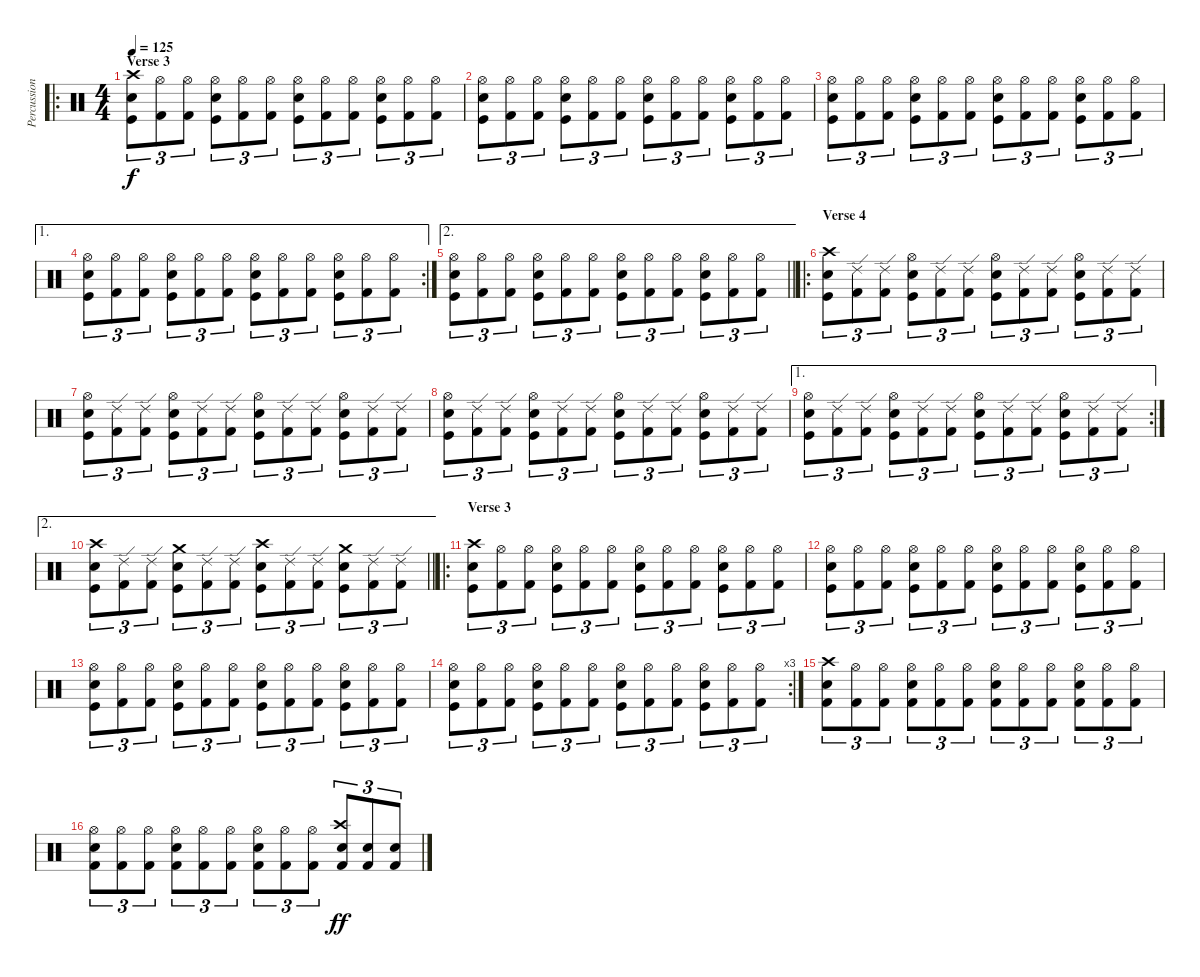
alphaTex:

\track ("Percussion" "Percussion") {instrument percussion}
\staff {score}
\articulation defaults
\ro
\ts (4 4)
\section ("" "Verse 3")
\tempo 125
\clef neutral
\ks c
("Snare (hit) 2" "Kick (hit)" "Crash high (hit)").8{tu (3 2) dy f} ("Kick (hit) 2" "Hi-Hat (open)").8{tu (3 2)} ("Kick (hit) 2" "Hi-Hat (open)").8{tu (3 2)} ("Snare (hit) 2" "Kick (hit)" "Hi-Hat (open)").8{tu (3 2)} ("Kick (hit) 2" "Hi-Hat (open)").8{tu (3 2)} ("Kick (hit) 2" "Hi-Hat (open)").8{tu (3 2)} ("Snare (hit) 2" "Kick (hit)" "Hi-Hat (open)").8{tu (3 2)} ("Kick (hit) 2" "Hi-Hat (open)").8{tu (3 2)} ("Kick (hit) 2" "Hi-Hat (open)").8{tu (3 2)} ("Snare (hit) 2" "Kick (hit)" "Hi-Hat (open)").8{tu (3 2)} ("Kick (hit) 2" "Hi-Hat (open)").8{tu (3 2)} ("Kick (hit) 2" "Hi-Hat (open)").8{tu (3 2)} |
("Snare (hit) 2" "Kick (hit)" "Hi-Hat (open)").8{tu (3 2)} ("Kick (hit) 2" "Hi-Hat (open)").8{tu (3 2)} ("Kick (hit) 2" "Hi-Hat (open)").8{tu (3 2)} ("Snare (hit) 2" "Kick (hit)" "Hi-Hat (open)").8{tu (3 2)} ("Kick (hit) 2" "Hi-Hat (open)").8{tu (3 2)} ("Kick (hit) 2" "Hi-Hat (open)").8{tu (3 2)} ("Snare (hit) 2" "Kick (hit)" "Hi-Hat (open)").8{tu (3 2)} ("Kick (hit) 2" "Hi-Hat (open)").8{tu (3 2)} ("Kick (hit) 2" "Hi-Hat (open)").8{tu (3 2)} ("Snare (hit) 2" "Kick (hit)" "Hi-Hat (open)").8{tu (3 2)} ("Kick (hit) 2" "Hi-Hat (open)").8{tu (3 2)} ("Kick (hit) 2" "Hi-Hat (open)").8{tu (3 2)} |
("Snare (hit) 2" "Kick (hit)" "Hi-Hat (open)").8{tu (3 2)} ("Kick (hit) 2" "Hi-Hat (open)").8{tu (3 2)} ("Kick (hit) 2" "Hi-Hat (open)").8{tu (3 2)} ("Snare (hit) 2" "Kick (hit)" "Hi-Hat (open)").8{tu (3 2)} ("Kick (hit) 2" "Hi-Hat (open)").8{tu (3 2)} ("Kick (hit) 2" "Hi-Hat (open)").8{tu (3 2)} ("Snare (hit) 2" "Kick (hit)" "Hi-Hat (open)").8{tu (3 2)} ("Kick (hit) 2" "Hi-Hat (open)").8{tu (3 2)} ("Kick (hit) 2" "Hi-Hat (open)").8{tu (3 2)} ("Snare (hit) 2" "Kick (hit)" "Hi-Hat (open)").8{tu (3 2)} ("Kick (hit) 2" "Hi-Hat (open)").8{tu (3 2)} ("Kick (hit) 2" "Hi-Hat (open)").8{tu (3 2)} |
\ae 1
\rc 2
("Snare (hit) 2" "Kick (hit)" "Hi-Hat (open)").8{tu (3 2)} ("Kick (hit) 2" "Hi-Hat (open)").8{tu (3 2)} ("Kick (hit) 2" "Hi-Hat (open)").8{tu (3 2)} ("Snare (hit) 2" "Kick (hit)" "Hi-Hat (open)").8{tu (3 2)} ("Kick (hit) 2" "Hi-Hat (open)").8{tu (3 2)} ("Kick (hit) 2" "Hi-Hat (open)").8{tu (3 2)} ("Snare (hit) 2" "Kick (hit)" "Hi-Hat (open)").8{tu (3 2)} ("Kick (hit) 2" "Hi-Hat (open)").8{tu (3 2)} ("Kick (hit) 2" "Hi-Hat (open)").8{tu (3 2)} ("Snare (hit) 2" "Kick (hit)" "Hi-Hat (open)").8{tu (3 2)} ("Kick (hit) 2" "Hi-Hat (open)").8{tu (3 2)} ("Kick (hit) 2" "Hi-Hat (open)").8{tu (3 2)} |
\ae 2
\barLineRight lightlight
("Snare (hit) 2" "Kick (hit)" "Hi-Hat (open)").8{tu (3 2)} ("Kick (hit) 2" "Hi-Hat (open)").8{tu (3 2)} ("Kick (hit) 2" "Hi-Hat (open)").8{tu (3 2)} ("Snare (hit) 2" "Kick (hit)" "Hi-Hat (open)").8{tu (3 2)} ("Kick (hit) 2" "Hi-Hat (open)").8{tu (3 2)} ("Kick (hit) 2" "Hi-Hat (open)").8{tu (3 2)} ("Snare (hit) 2" "Kick (hit)" "Hi-Hat (open)").8{tu (3 2)} ("Kick (hit) 2" "Hi-Hat (open)").8{tu (3 2)} ("Kick (hit) 2" "Hi-Hat (open)").8{tu (3 2)} ("Snare (hit) 2" "Kick (hit)" "Hi-Hat (open)").8{tu (3 2)} ("Kick (hit) 2" "Hi-Hat (open)").8{tu (3 2)} ("Kick (hit) 2" "Hi-Hat (open)").8{tu (3 2)} |
\ro
\section ("" "Verse 4")
("Snare (hit) 2" "Kick (hit)" "Crash high (hit)").8{tu (3 2)} ("Kick (hit) 2" "Ride (edge) 2").8{tu (3 2)} ("Kick (hit) 2" "Ride (edge) 2").8{tu (3 2)} ("Snare (hit) 2" "Kick (hit)" "Hi-Hat (open)").8{tu (3 2)} ("Kick (hit) 2" "Ride (edge) 2").8{tu (3 2)} ("Kick (hit) 2" "Ride (edge) 2").8{tu (3 2)} ("Snare (hit) 2" "Kick (hit)" "Hi-Hat (open)").8{tu (3 2)} ("Kick (hit) 2" "Ride (edge) 2").8{tu (3 2)} ("Kick (hit) 2" "Ride (edge) 2").8{tu (3 2)} ("Snare (hit) 2" "Kick (hit)" "Hi-Hat (open)").8{tu (3 2)} ("Kick (hit) 2" "Ride (edge) 2").8{tu (3 2)} ("Kick (hit) 2" "Ride (edge) 2").8{tu (3 2)} |
("Snare (hit) 2" "Kick (hit)" "Hi-Hat (open)").8{tu (3 2)} ("Kick (hit) 2" "Ride (edge) 2").8{tu (3 2)} ("Kick (hit) 2" "Ride (edge) 2").8{tu (3 2)} ("Snare (hit) 2" "Kick (hit)" "Hi-Hat (open)").8{tu (3 2)} ("Kick (hit) 2" "Ride (edge) 2").8{tu (3 2)} ("Kick (hit) 2" "Ride (edge) 2").8{tu (3 2)} ("Snare (hit) 2" "Kick (hit)" "Hi-Hat (open)").8{tu (3 2)} ("Kick (hit) 2" "Ride (edge) 2").8{tu (3 2)} ("Kick (hit) 2" "Ride (edge) 2").8{tu (3 2)} ("Snare (hit) 2" "Kick (hit)" "Hi-Hat (open)").8{tu (3 2)} ("Kick (hit) 2" "Ride (edge) 2").8{tu (3 2)} ("Kick (hit) 2" "Ride (edge) 2").8{tu (3 2)} |
("Snare (hit) 2" "Kick (hit)" "Hi-Hat (open)").8{tu (3 2)} ("Kick (hit) 2" "Ride (edge) 2").8{tu (3 2)} ("Kick (hit) 2" "Ride (edge) 2").8{tu (3 2)} ("Snare (hit) 2" "Kick (hit)" "Hi-Hat (open)").8{tu (3 2)} ("Kick (hit) 2" "Ride (edge) 2").8{tu (3 2)} ("Kick (hit) 2" "Ride (edge) 2").8{tu (3 2)} ("Snare (hit) 2" "Kick (hit)" "Hi-Hat (open)").8{tu (3 2)} ("Kick (hit) 2" "Ride (edge) 2").8{tu (3 2)} ("Kick (hit) 2" "Ride (edge) 2").8{tu (3 2)} ("Snare (hit) 2" "Kick (hit)" "Hi-Hat (open)").8{tu (3 2)} ("Kick (hit) 2" "Ride (edge) 2").8{tu (3 2)} ("Kick (hit) 2" "Ride (edge) 2").8{tu (3 2)} |
\ae 1
\rc 2
("Snare (hit) 2" "Kick (hit)" "Hi-Hat (open)").8{tu (3 2)} ("Kick (hit) 2" "Ride (edge) 2").8{tu (3 2)} ("Kick (hit) 2" "Ride (edge) 2").8{tu (3 2)} ("Snare (hit) 2" "Kick (hit)" "Hi-Hat (open)").8{tu (3 2)} ("Kick (hit) 2" "Ride (edge) 2").8{tu (3 2)} ("Kick (hit) 2" "Ride (edge) 2").8{tu (3 2)} ("Snare (hit) 2" "Kick (hit)" "Hi-Hat (open)").8{tu (3 2)} ("Kick (hit) 2" "Ride (edge) 2").8{tu (3 2)} ("Kick (hit) 2" "Ride (edge) 2").8{tu (3 2)} ("Snare (hit) 2" "Kick (hit)" "Hi-Hat (open)").8{tu (3 2)} ("Kick (hit) 2" "Ride (edge) 2").8{tu (3 2)} ("Kick (hit) 2" "Ride (edge) 2").8{tu (3 2)} |
\ae 2
\barLineRight lightlight
("Snare (hit) 2" "Kick (hit)" "Crash high (hit)").8{tu (3 2)} ("Kick (hit) 2" "Ride (edge) 2").8{tu (3 2)} ("Kick (hit) 2" "Ride (edge) 2").8{tu (3 2)} ("Snare (hit) 2" "Kick (hit)" "Crash medium (hit)").8{tu (3 2)} ("Kick (hit) 2" "Ride (edge) 2").8{tu (3 2)} ("Kick (hit) 2" "Ride (edge) 2").8{tu (3 2)} ("Snare (hit) 2" "Kick (hit)" "Crash high (hit)").8{tu (3 2)} ("Kick (hit) 2" "Ride (edge) 2").8{tu (3 2)} ("Kick (hit) 2" "Ride (edge) 2").8{tu (3 2)} ("Snare (hit) 2" "Kick (hit)" "Crash medium (hit)").8{tu (3 2)} ("Kick (hit) 2" "Ride (edge) 2").8{tu (3 2)} ("Kick (hit) 2" "Ride (edge) 2").8{tu (3 2)} |
\ro
\section ("" "Verse 3")
("Snare (hit) 2" "Kick (hit)" "Crash high (hit)").8{tu (3 2)} ("Kick (hit) 2" "Hi-Hat (open)").8{tu (3 2)} ("Kick (hit) 2" "Hi-Hat (open)").8{tu (3 2)} ("Snare (hit) 2" "Kick (hit)" "Hi-Hat (open)").8{tu (3 2)} ("Kick (hit) 2" "Hi-Hat (open)").8{tu (3 2)} ("Kick (hit) 2" "Hi-Hat (open)").8{tu (3 2)} ("Snare (hit) 2" "Kick (hit)" "Hi-Hat (open)").8{tu (3 2)} ("Kick (hit) 2" "Hi-Hat (open)").8{tu (3 2)} ("Kick (hit) 2" "Hi-Hat (open)").8{tu (3 2)} ("Snare (hit) 2" "Kick (hit)" "Hi-Hat (open)").8{tu (3 2)} ("Kick (hit) 2" "Hi-Hat (open)").8{tu (3 2)} ("Kick (hit) 2" "Hi-Hat (open)").8{tu (3 2)} |
("Snare (hit) 2" "Kick (hit)" "Hi-Hat (open)").8{tu (3 2)} ("Kick (hit) 2" "Hi-Hat (open)").8{tu (3 2)} ("Kick (hit) 2" "Hi-Hat (open)").8{tu (3 2)} ("Snare (hit) 2" "Kick (hit)" "Hi-Hat (open)").8{tu (3 2)} ("Kick (hit) 2" "Hi-Hat (open)").8{tu (3 2)} ("Kick (hit) 2" "Hi-Hat (open)").8{tu (3 2)} ("Snare (hit) 2" "Kick (hit)" "Hi-Hat (open)").8{tu (3 2)} ("Kick (hit) 2" "Hi-Hat (open)").8{tu (3 2)} ("Kick (hit) 2" "Hi-Hat (open)").8{tu (3 2)} ("Snare (hit) 2" "Kick (hit)" "Hi-Hat (open)").8{tu (3 2)} ("Kick (hit) 2" "Hi-Hat (open)").8{tu (3 2)} ("Kick (hit) 2" "Hi-Hat (open)").8{tu (3 2)} |
("Snare (hit) 2" "Kick (hit)" "Hi-Hat (open)").8{tu (3 2)} ("Kick (hit) 2" "Hi-Hat (open)").8{tu (3 2)} ("Kick (hit) 2" "Hi-Hat (open)").8{tu (3 2)} ("Snare (hit) 2" "Kick (hit)" "Hi-Hat (open)").8{tu (3 2)} ("Kick (hit) 2" "Hi-Hat (open)").8{tu (3 2)} ("Kick (hit) 2" "Hi-Hat (open)").8{tu (3 2)} ("Snare (hit) 2" "Kick (hit)" "Hi-Hat (open)").8{tu (3 2)} ("Kick (hit) 2" "Hi-Hat (open)").8{tu (3 2)} ("Kick (hit) 2" "Hi-Hat (open)").8{tu (3 2)} ("Snare (hit) 2" "Kick (hit)" "Hi-Hat (open)").8{tu (3 2)} ("Kick (hit) 2" "Hi-Hat (open)").8{tu (3 2)} ("Kick (hit) 2" "Hi-Hat (open)").8{tu (3 2)} |
\rc 3
("Snare (hit) 2" "Kick (hit)" "Hi-Hat (open)").8{tu (3 2)} ("Kick (hit) 2" "Hi-Hat (open)").8{tu (3 2)} ("Kick (hit) 2" "Hi-Hat (open)").8{tu (3 2)} ("Snare (hit) 2" "Kick (hit)" "Hi-Hat (open)").8{tu (3 2)} ("Kick (hit) 2" "Hi-Hat (open)").8{tu (3 2)} ("Kick (hit) 2" "Hi-Hat (open)").8{tu (3 2)} ("Snare (hit) 2" "Kick (hit)" "Hi-Hat (open)").8{tu (3 2)} ("Kick (hit) 2" "Hi-Hat (open)").8{tu (3 2)} ("Kick (hit) 2" "Hi-Hat (open)").8{tu (3 2)} ("Snare (hit) 2" "Kick (hit)" "Hi-Hat (open)").8{tu (3 2)} ("Kick (hit) 2" "Hi-Hat (open)").8{tu (3 2)} ("Kick (hit) 2" "Hi-Hat (open)").8{tu (3 2)} |
("Crash high (hit)" "Snare (hit) 2" "Kick (hit) 2").8{tu (3 2)} ("Hi-Hat (open)" "Kick (hit) 2").8{tu (3 2)} ("Hi-Hat (open)" "Kick (hit) 2").8{tu (3 2)} ("Hi-Hat (open)" "Snare (hit) 2" "Kick (hit) 2").8{tu (3 2)} ("Hi-Hat (open)" "Kick (hit) 2").8{tu (3 2)} ("Hi-Hat (open)" "Kick (hit) 2").8{tu (3 2)} ("Hi-Hat (open)" "Snare (hit) 2" "Kick (hit) 2").8{tu (3 2)} ("Hi-Hat (open)" "Kick (hit) 2").8{tu (3 2)} ("Hi-Hat (open)" "Kick (hit) 2").8{tu (3 2)} ("Hi-Hat (open)" "Snare (hit) 2" "Kick (hit) 2").8{tu (3 2)} ("Hi-Hat (open)" "Kick (hit) 2").8{tu (3 2)} ("Hi-Hat (open)" "Kick (hit) 2").8{tu (3 2)} |
("Hi-Hat (open)" "Snare (hit) 2" "Kick (hit) 2").8{tu (3 2)} ("Hi-Hat (open)" "Kick (hit) 2").8{tu (3 2)} ("Hi-Hat (open)" "Kick (hit) 2").8{tu (3 2)} ("Hi-Hat (open)" "Snare (hit) 2" "Kick (hit) 2").8{tu (3 2)} ("Hi-Hat (open)" "Kick (hit) 2").8{tu (3 2)} ("Hi-Hat (open)" "Kick (hit) 2").8{tu (3 2)} ("Hi-Hat (open)" "Snare (hit) 2" "Kick (hit) 2").8{tu (3 2)} ("Hi-Hat (open)" "Kick (hit) 2").8{tu (3 2)} ("Hi-Hat (open)" "Kick (hit) 2").8{tu (3 2)} ("Crash high (hit)" "Snare (hit) 2" "Kick (hit) 2").8{tu (3 2) dy ff} ("Snare (hit) 2" "Kick (hit) 2").8{tu (3 2)} ("Snare (hit) 2" "Kick (hit) 2").8{tu (3 2)}
